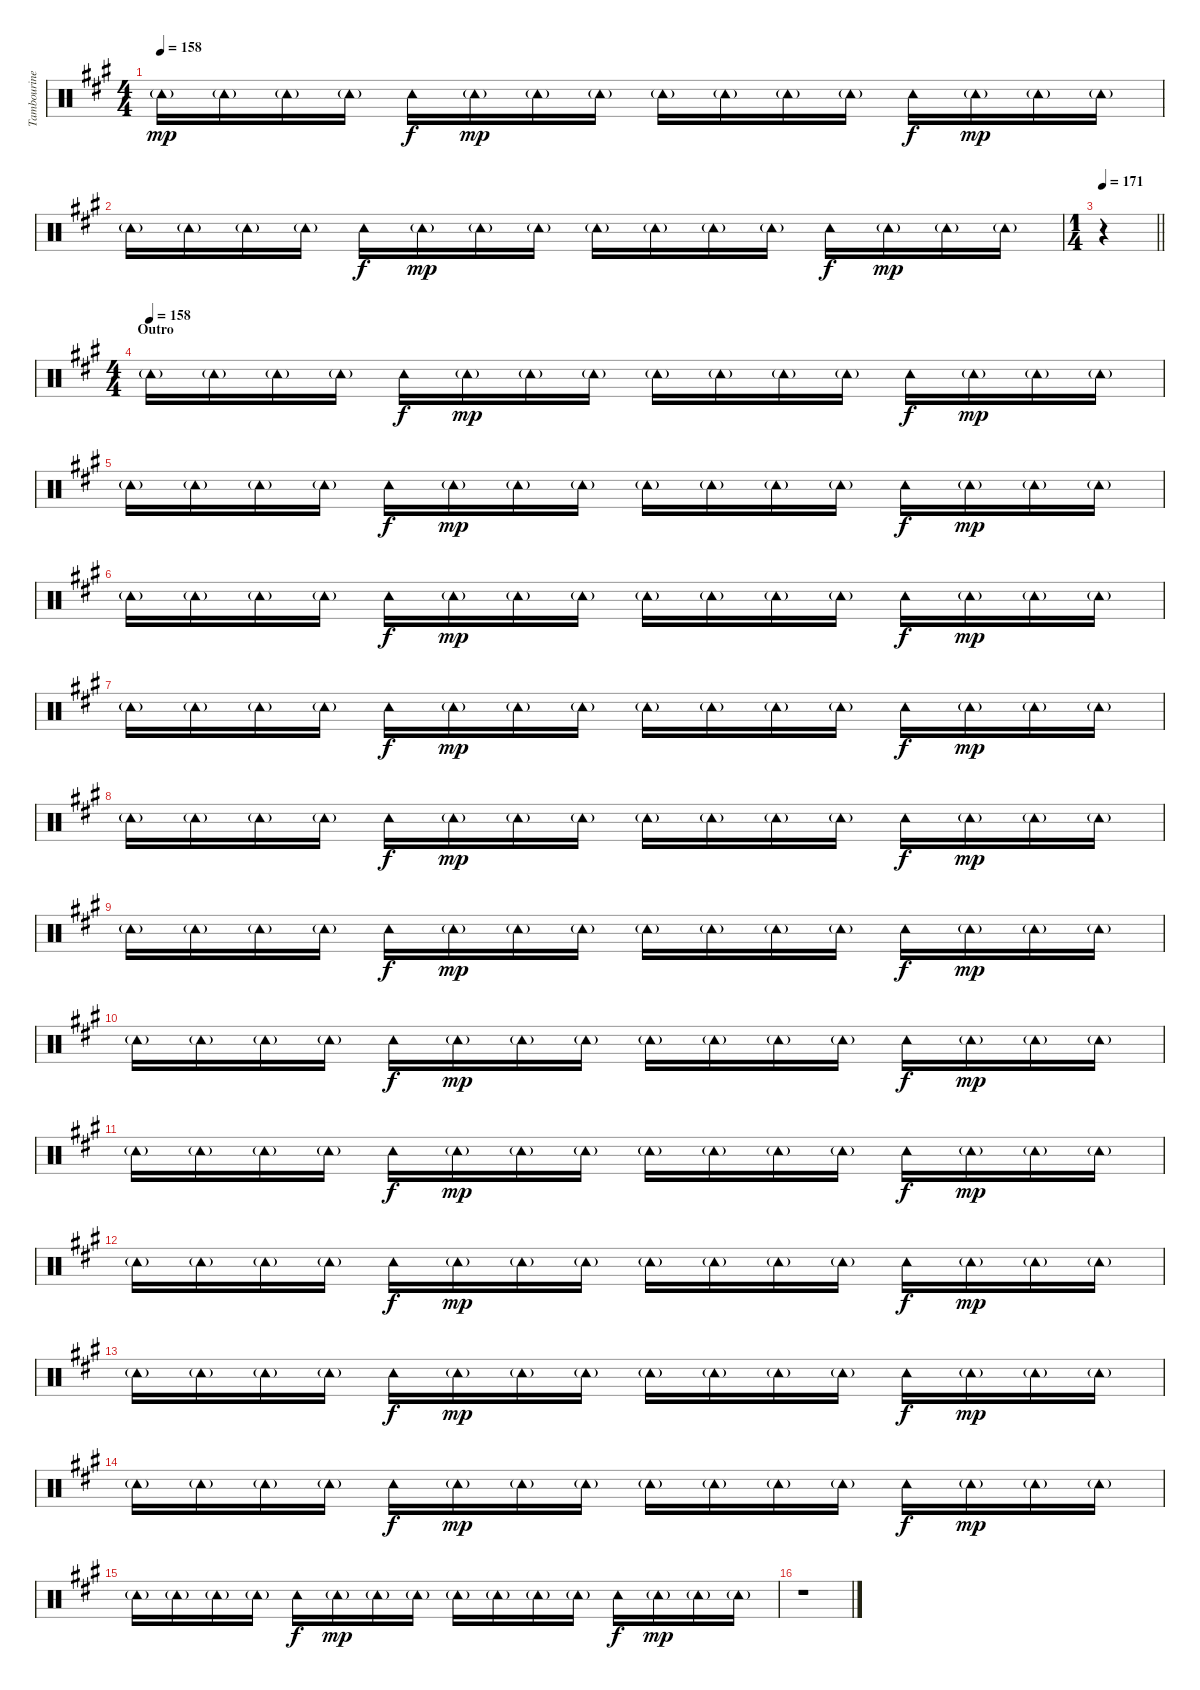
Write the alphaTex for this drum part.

\track ("Tambourine" "Tambourine") {instrument percussion}
\staff {score}
\articulation defaults
\ts (4 4)
\tempo 158
\clef neutral
\ks a "Tambourine (hit)"{g}.16{dy mp} "Tambourine (hit)"{g}.16 "Tambourine (hit)"{g}.16 "Tambourine (hit)"{g}.16 "Tambourine (hit)".16{dy f} "Tambourine (hit)"{g}.16{dy mp} "Tambourine (hit)"{g}.16 "Tambourine (hit)"{g}.16 "Tambourine (hit)"{g}.16 "Tambourine (hit)"{g}.16 "Tambourine (hit)"{g}.16 "Tambourine (hit)"{g}.16 "Tambourine (hit)".16{dy f} "Tambourine (hit)"{g}.16{dy mp} "Tambourine (hit)"{g}.16 "Tambourine (hit)"{g}.16
|
"Tambourine (hit)"{g}.16 "Tambourine (hit)"{g}.16 "Tambourine (hit)"{g}.16 "Tambourine (hit)"{g}.16 "Tambourine (hit)".16{dy f} "Tambourine (hit)"{g}.16{dy mp} "Tambourine (hit)"{g}.16 "Tambourine (hit)"{g}.16 "Tambourine (hit)"{g}.16 "Tambourine (hit)"{g}.16 "Tambourine (hit)"{g}.16 "Tambourine (hit)"{g}.16 "Tambourine (hit)".16{dy f} "Tambourine (hit)"{g}.16{dy mp} "Tambourine (hit)"{g}.16 "Tambourine (hit)"{g}.16 |
\ts (1 4)
\tempo 171
\barLineRight lightlight
r.4 |
\ts (4 4)
\section ("" "Outro")
\tempo (158)
"Tambourine (hit)"{g}.16 "Tambourine (hit)"{g}.16 "Tambourine (hit)"{g}.16 "Tambourine (hit)"{g}.16 "Tambourine (hit)".16{dy f} "Tambourine (hit)"{g}.16{dy mp} "Tambourine (hit)"{g}.16 "Tambourine (hit)"{g}.16 "Tambourine (hit)"{g}.16 "Tambourine (hit)"{g}.16 "Tambourine (hit)"{g}.16 "Tambourine (hit)"{g}.16 "Tambourine (hit)".16{dy f} "Tambourine (hit)"{g}.16{dy mp} "Tambourine (hit)"{g}.16 "Tambourine (hit)"{g}.16 |
"Tambourine (hit)"{g}.16 "Tambourine (hit)"{g}.16 "Tambourine (hit)"{g}.16 "Tambourine (hit)"{g}.16 "Tambourine (hit)".16{dy f} "Tambourine (hit)"{g}.16{dy mp} "Tambourine (hit)"{g}.16 "Tambourine (hit)"{g}.16 "Tambourine (hit)"{g}.16 "Tambourine (hit)"{g}.16 "Tambourine (hit)"{g}.16 "Tambourine (hit)"{g}.16 "Tambourine (hit)".16{dy f} "Tambourine (hit)"{g}.16{dy mp} "Tambourine (hit)"{g}.16 "Tambourine (hit)"{g}.16 |
"Tambourine (hit)"{g}.16 "Tambourine (hit)"{g}.16 "Tambourine (hit)"{g}.16 "Tambourine (hit)"{g}.16 "Tambourine (hit)".16{dy f} "Tambourine (hit)"{g}.16{dy mp} "Tambourine (hit)"{g}.16 "Tambourine (hit)"{g}.16 "Tambourine (hit)"{g}.16 "Tambourine (hit)"{g}.16 "Tambourine (hit)"{g}.16 "Tambourine (hit)"{g}.16 "Tambourine (hit)".16{dy f} "Tambourine (hit)"{g}.16{dy mp} "Tambourine (hit)"{g}.16 "Tambourine (hit)"{g}.16 |
"Tambourine (hit)"{g}.16 "Tambourine (hit)"{g}.16 "Tambourine (hit)"{g}.16 "Tambourine (hit)"{g}.16 "Tambourine (hit)".16{dy f} "Tambourine (hit)"{g}.16{dy mp} "Tambourine (hit)"{g}.16 "Tambourine (hit)"{g}.16 "Tambourine (hit)"{g}.16 "Tambourine (hit)"{g}.16 "Tambourine (hit)"{g}.16 "Tambourine (hit)"{g}.16 "Tambourine (hit)".16{dy f} "Tambourine (hit)"{g}.16{dy mp} "Tambourine (hit)"{g}.16 "Tambourine (hit)"{g}.16 |
"Tambourine (hit)"{g}.16 "Tambourine (hit)"{g}.16 "Tambourine (hit)"{g}.16 "Tambourine (hit)"{g}.16 "Tambourine (hit)".16{dy f} "Tambourine (hit)"{g}.16{dy mp} "Tambourine (hit)"{g}.16 "Tambourine (hit)"{g}.16 "Tambourine (hit)"{g}.16 "Tambourine (hit)"{g}.16 "Tambourine (hit)"{g}.16 "Tambourine (hit)"{g}.16 "Tambourine (hit)".16{dy f} "Tambourine (hit)"{g}.16{dy mp} "Tambourine (hit)"{g}.16 "Tambourine (hit)"{g}.16 |
"Tambourine (hit)"{g}.16 "Tambourine (hit)"{g}.16 "Tambourine (hit)"{g}.16 "Tambourine (hit)"{g}.16 "Tambourine (hit)".16{dy f} "Tambourine (hit)"{g}.16{dy mp} "Tambourine (hit)"{g}.16 "Tambourine (hit)"{g}.16 "Tambourine (hit)"{g}.16 "Tambourine (hit)"{g}.16 "Tambourine (hit)"{g}.16 "Tambourine (hit)"{g}.16 "Tambourine (hit)".16{dy f} "Tambourine (hit)"{g}.16{dy mp} "Tambourine (hit)"{g}.16 "Tambourine (hit)"{g}.16 |
"Tambourine (hit)"{g}.16 "Tambourine (hit)"{g}.16 "Tambourine (hit)"{g}.16 "Tambourine (hit)"{g}.16 "Tambourine (hit)".16{dy f} "Tambourine (hit)"{g}.16{dy mp} "Tambourine (hit)"{g}.16 "Tambourine (hit)"{g}.16 "Tambourine (hit)"{g}.16 "Tambourine (hit)"{g}.16 "Tambourine (hit)"{g}.16 "Tambourine (hit)"{g}.16 "Tambourine (hit)".16{dy f} "Tambourine (hit)"{g}.16{dy mp} "Tambourine (hit)"{g}.16 "Tambourine (hit)"{g}.16 |
"Tambourine (hit)"{g}.16 "Tambourine (hit)"{g}.16 "Tambourine (hit)"{g}.16 "Tambourine (hit)"{g}.16 "Tambourine (hit)".16{dy f} "Tambourine (hit)"{g}.16{dy mp} "Tambourine (hit)"{g}.16 "Tambourine (hit)"{g}.16 "Tambourine (hit)"{g}.16 "Tambourine (hit)"{g}.16 "Tambourine (hit)"{g}.16 "Tambourine (hit)"{g}.16 "Tambourine (hit)".16{dy f} "Tambourine (hit)"{g}.16{dy mp} "Tambourine (hit)"{g}.16 "Tambourine (hit)"{g}.16 |
"Tambourine (hit)"{g}.16 "Tambourine (hit)"{g}.16 "Tambourine (hit)"{g}.16 "Tambourine (hit)"{g}.16 "Tambourine (hit)".16{dy f} "Tambourine (hit)"{g}.16{dy mp} "Tambourine (hit)"{g}.16 "Tambourine (hit)"{g}.16 "Tambourine (hit)"{g}.16 "Tambourine (hit)"{g}.16 "Tambourine (hit)"{g}.16 "Tambourine (hit)"{g}.16 "Tambourine (hit)".16{dy f} "Tambourine (hit)"{g}.16{dy mp} "Tambourine (hit)"{g}.16 "Tambourine (hit)"{g}.16 |
"Tambourine (hit)"{g}.16 "Tambourine (hit)"{g}.16 "Tambourine (hit)"{g}.16 "Tambourine (hit)"{g}.16 "Tambourine (hit)".16{dy f} "Tambourine (hit)"{g}.16{dy mp} "Tambourine (hit)"{g}.16 "Tambourine (hit)"{g}.16 "Tambourine (hit)"{g}.16 "Tambourine (hit)"{g}.16 "Tambourine (hit)"{g}.16 "Tambourine (hit)"{g}.16 "Tambourine (hit)".16{dy f} "Tambourine (hit)"{g}.16{dy mp} "Tambourine (hit)"{g}.16 "Tambourine (hit)"{g}.16 |
"Tambourine (hit)"{g}.16 "Tambourine (hit)"{g}.16 "Tambourine (hit)"{g}.16 "Tambourine (hit)"{g}.16 "Tambourine (hit)".16{dy f} "Tambourine (hit)"{g}.16{dy mp} "Tambourine (hit)"{g}.16 "Tambourine (hit)"{g}.16 "Tambourine (hit)"{g}.16 "Tambourine (hit)"{g}.16 "Tambourine (hit)"{g}.16 "Tambourine (hit)"{g}.16 "Tambourine (hit)".16{dy f} "Tambourine (hit)"{g}.16{dy mp} "Tambourine (hit)"{g}.16 "Tambourine (hit)"{g}.16 |
"Tambourine (hit)"{g}.16 "Tambourine (hit)"{g}.16 "Tambourine (hit)"{g}.16 "Tambourine (hit)"{g}.16 "Tambourine (hit)".16{dy f} "Tambourine (hit)"{g}.16{dy mp} "Tambourine (hit)"{g}.16 "Tambourine (hit)"{g}.16 "Tambourine (hit)"{g}.16 "Tambourine (hit)"{g}.16 "Tambourine (hit)"{g}.16 "Tambourine (hit)"{g}.16 "Tambourine (hit)".16{dy f} "Tambourine (hit)"{g}.16{dy mp} "Tambourine (hit)"{g}.16 "Tambourine (hit)"{g}.16 |
r.1
